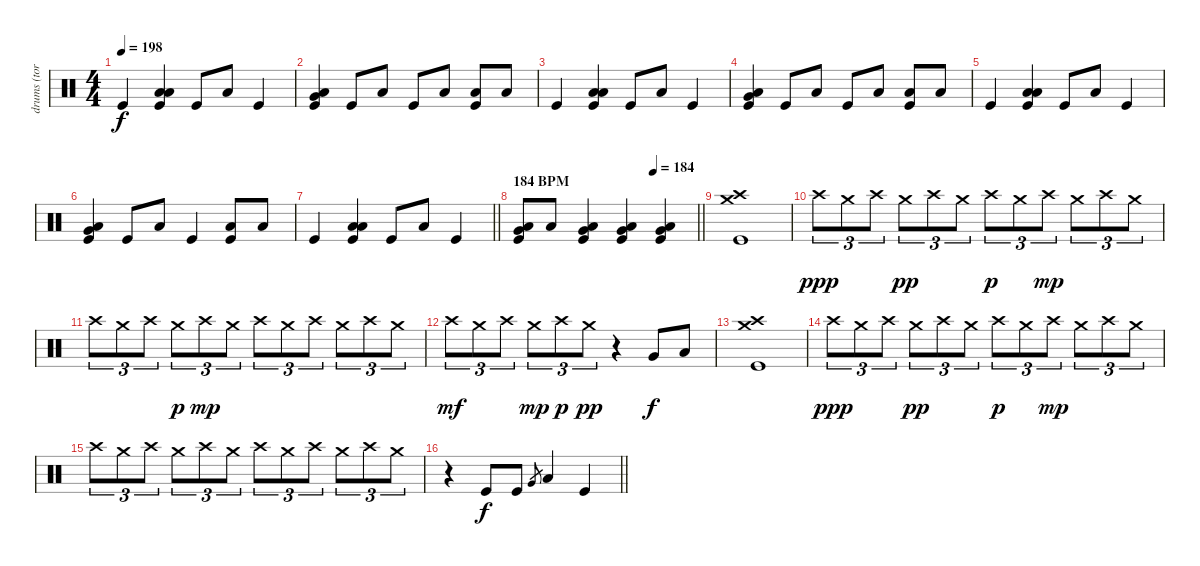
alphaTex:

\track ("drums (tora)" "drums (tor") {instrument percussion}
\staff {score}
\articulation defaults
\ts (4 4)
\tempo 198
\clef neutral
\ks c "Kick (hit)".4{dy f}
("Low Tom (hit)" "Low Floor Tom (hit)" "Kick (hit)").4 "Kick (hit)".8 "Low Floor Tom (hit)".8 "Kick (hit)".4 |
("Very Low Tom (hit)" "Low Floor Tom (hit)" "Kick (hit)").4 "Kick (hit)".8 "Low Floor Tom (hit)".8 "Kick (hit)".8 "Low Floor Tom (hit)".8 ("Low Floor Tom (hit)" "Kick (hit)").8 "Low Floor Tom (hit)".8 |
"Kick (hit)".4 ("Low Tom (hit)" "Low Floor Tom (hit)" "Kick (hit)").4 "Kick (hit)".8 "Low Floor Tom (hit)".8 "Kick (hit)".4 |
("Very Low Tom (hit)" "Low Floor Tom (hit)" "Kick (hit)").4 "Kick (hit)".8 "Low Floor Tom (hit)".8 "Kick (hit)".8 "Low Floor Tom (hit)".8 ("Low Floor Tom (hit)" "Kick (hit)").8 "Low Floor Tom (hit)".8 |
"Kick (hit)".4 ("Low Tom (hit)" "Low Floor Tom (hit)" "Kick (hit)").4 "Kick (hit)".8 "Low Floor Tom (hit)".8 "Kick (hit)".4 |
("Very Low Tom (hit)" "Low Floor Tom (hit)" "Kick (hit)").4 "Kick (hit)".8 "Low Floor Tom (hit)".8 "Kick (hit)".4 ("Low Floor Tom (hit)" "Kick (hit)").8 "Low Floor Tom (hit)".8 |
\barLineRight lightlight "Kick (hit)".4
("Low Tom (hit)" "Low Floor Tom (hit)" "Kick (hit)").4 "Kick (hit)".8 "Low Floor Tom (hit)".8 "Kick (hit)".4 |
\section ("" "184 BPM")
\tempo (184 0.75)
\barLineRight lightlight
("Very Low Tom (hit)" "Low Floor Tom (hit)" "Kick (hit)").8 "Low Floor Tom (hit)".8 ("Very Low Tom (hit)" "Low Floor Tom (hit)" "Kick (hit)").4 ("Very Low Tom (hit)" "Low Floor Tom (hit)" "Kick (hit)").4 ("Very Low Tom (hit)" "Low Floor Tom (hit)" "Kick (hit)").4 |
\section ("" "")
("Crash high (hit)" "Crash medium (hit)" "Kick (hit)").1 |
"Crash high (hit)".8{tu (3 2) dy ppp} "Crash medium (hit)".8{tu (3 2)} "Crash high (hit)".8{tu (3 2)} "Crash medium (hit)".8{tu (3 2) dy pp} "Crash high (hit)".8{tu (3 2)} "Crash medium (hit)".8{tu (3 2)} "Crash high (hit)".8{tu (3 2) dy p} "Crash medium (hit)".8{tu (3 2)} "Crash high (hit)".8{tu (3 2) dy mp} "Crash medium (hit)".8{tu (3 2)} "Crash high (hit)".8{tu (3 2)} "Crash medium (hit)".8{tu (3 2)} |
"Crash high (hit)".8{tu (3 2)} "Crash medium (hit)".8{tu (3 2)} "Crash high (hit)".8{tu (3 2)} "Crash medium (hit)".8{tu (3 2) dy p} "Crash high (hit)".8{tu (3 2) dy mp} "Crash medium (hit)".8{tu (3 2)} "Crash high (hit)".8{tu (3 2)} "Crash medium (hit)".8{tu (3 2)} "Crash high (hit)".8{tu (3 2)} "Crash medium (hit)".8{tu (3 2)} "Crash high (hit)".8{tu (3 2)} "Crash medium (hit)".8{tu (3 2)} |
"Crash high (hit)".8{tu (3 2) dy mf} "Crash medium (hit)".8{tu (3 2)} "Crash high (hit)".8{tu (3 2)} "Crash medium (hit)".8{tu (3 2) dy mp} "Crash high (hit)".8{tu (3 2) dy p} "Crash medium (hit)".8{tu (3 2) dy pp} r.4 "Very Low Tom (hit)".8{dy f} "Low Floor Tom (hit)".8 |
("Crash high (hit)" "Crash medium (hit)" "Kick (hit)").1 |
"Crash high (hit)".8{tu (3 2) dy ppp} "Crash medium (hit)".8{tu (3 2)} "Crash high (hit)".8{tu (3 2)} "Crash medium (hit)".8{tu (3 2) dy pp} "Crash high (hit)".8{tu (3 2)} "Crash medium (hit)".8{tu (3 2)} "Crash high (hit)".8{tu (3 2) dy p} "Crash medium (hit)".8{tu (3 2)} "Crash high (hit)".8{tu (3 2) dy mp} "Crash medium (hit)".8{tu (3 2)} "Crash high (hit)".8{tu (3 2)} "Crash medium (hit)".8{tu (3 2)} |
"Crash high (hit)".8{tu (3 2)} "Crash medium (hit)".8{tu (3 2)} "Crash high (hit)".8{tu (3 2)} "Crash medium (hit)".8{tu (3 2)} "Crash high (hit)".8{tu (3 2)} "Crash medium (hit)".8{tu (3 2)} "Crash high (hit)".8{tu (3 2)} "Crash medium (hit)".8{tu (3 2)} "Crash high (hit)".8{tu (3 2)} "Crash medium (hit)".8{tu (3 2)} "Crash high (hit)".8{tu (3 2)} "Crash medium (hit)".8{tu (3 2)} |
\barLineRight lightlight
r.4 "Kick (hit)".8{dy f} "Kick (hit)".8 "Very Low Tom (hit)".8{gr} "Low Floor Tom (hit)".4 "Kick (hit)".4
